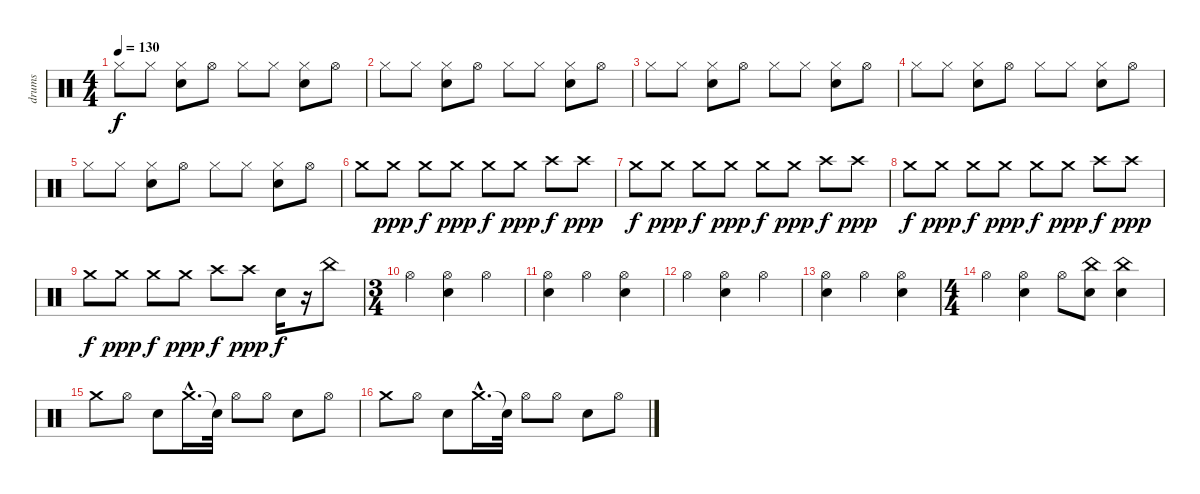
\track ("drums" "drums") {instrument percussion}
\staff {score}
\articulation defaults
\ts (4 4)
\tempo 130
\clef neutral
\ks c "Hi-Hat (closed)".8{dy f} "Hi-Hat (closed)".8
("Snare (hit) 2" "Hi-Hat (closed)").8 "Hi-Hat (open)".8 "Hi-Hat (closed)".8 "Hi-Hat (closed)".8 ("Snare (hit) 2" "Hi-Hat (closed)").8 "Hi-Hat (open)".8 |
"Hi-Hat (closed)".8 "Hi-Hat (closed)".8 ("Snare (hit) 2" "Hi-Hat (closed)").8 "Hi-Hat (open)".8 "Hi-Hat (closed)".8 "Hi-Hat (closed)".8 ("Snare (hit) 2" "Hi-Hat (closed)").8 "Hi-Hat (open)".8 |
"Hi-Hat (closed)".8 "Hi-Hat (closed)".8 ("Snare (hit) 2" "Hi-Hat (closed)").8 "Hi-Hat (open)".8 "Hi-Hat (closed)".8 "Hi-Hat (closed)".8 ("Snare (hit) 2" "Hi-Hat (closed)").8 "Hi-Hat (open)".8 |
"Hi-Hat (closed)".8 "Hi-Hat (closed)".8 ("Snare (hit) 2" "Hi-Hat (closed)").8 "Hi-Hat (open)".8 "Hi-Hat (closed)".8 "Hi-Hat (closed)".8 ("Snare (hit) 2" "Hi-Hat (closed)").8 "Hi-Hat (open)".8 |
"Hi-Hat (closed)".8 "Hi-Hat (closed)".8 ("Snare (hit) 2" "Hi-Hat (closed)").8 "Hi-Hat (open)".8 "Hi-Hat (closed)".8 "Hi-Hat (closed)".8 ("Snare (hit) 2" "Hi-Hat (closed)").8 "Hi-Hat (open)".8 |
"Crash medium (hit)".8 "Crash medium (hit)".8{dy ppp} "Crash medium (hit)".8{dy f} "Crash medium (hit)".8{dy ppp} "Crash medium (hit)".8{dy f} "Crash medium (hit)".8{dy ppp} "Crash high (hit)".8{dy f} "Crash high (hit)".8{dy ppp} |
"Crash medium (hit)".8{dy f} "Crash medium (hit)".8{dy ppp} "Crash medium (hit)".8{dy f} "Crash medium (hit)".8{dy ppp} "Crash medium (hit)".8{dy f} "Crash medium (hit)".8{dy ppp} "Crash high (hit)".8{dy f} "Crash high (hit)".8{dy ppp} |
"Crash medium (hit)".8{dy f} "Crash medium (hit)".8{dy ppp} "Crash medium (hit)".8{dy f} "Crash medium (hit)".8{dy ppp} "Crash medium (hit)".8{dy f} "Crash medium (hit)".8{dy ppp} "Crash high (hit)".8{dy f} "Crash high (hit)".8{dy ppp} |
"Crash medium (hit)".8{dy f} "Crash medium (hit)".8{dy ppp} "Crash medium (hit)".8{dy f} "Crash medium (hit)".8{dy ppp} "Crash high (hit)".8{dy f} "Crash high (hit)".8{dy ppp} "Snare (hit) 2".16{dy f} r.16 "China (hit)".8 |
\ts (3 4)
"Hi-Hat (open)".4 ("Snare (hit) 2" "Hi-Hat (open)").4 "Hi-Hat (open)".4 |
("Snare (hit) 2" "Hi-Hat (open)").4 "Hi-Hat (open)".4 ("Snare (hit) 2" "Hi-Hat (open)").4 |
"Hi-Hat (open)".4 ("Snare (hit) 2" "Hi-Hat (open)").4 "Hi-Hat (open)".4 |
("Snare (hit) 2" "Hi-Hat (open)").4 "Hi-Hat (open)".4 ("Snare (hit) 2" "Hi-Hat (open)").4 |
\ts (4 4)
"Hi-Hat (open)".4 ("Snare (hit) 2" "Hi-Hat (open)").4 "Hi-Hat (open)".8 ("China (hit)" "Snare (hit) 2").8 ("China (hit)" "Snare (hit) 2").4 |
"Crash medium (hit)".8 "Hi-Hat (open)".8 "Snare (hit) 2".8 "Crash medium (hit)"{hac}.16{d} "Snare (hit)"{t}.32 "Hi-Hat (open)".8 "Hi-Hat (open)".8 "Snare (hit) 2".8 "Hi-Hat (open)".8 |
"Crash medium (hit)".8 "Hi-Hat (open)".8 "Snare (hit) 2".8 "Crash medium (hit)"{hac}.16{d} "Snare (hit)"{t}.32 "Hi-Hat (open)".8 "Hi-Hat (open)".8 "Snare (hit) 2".8 "Hi-Hat (open)".8
